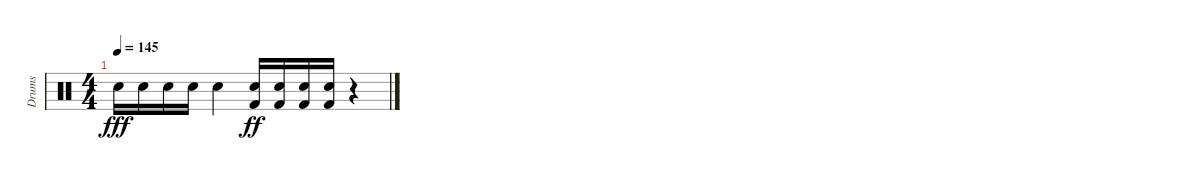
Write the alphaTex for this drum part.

\track ("Drums" "Drums") {instrument percussion}
\staff {score}
\articulation defaults
\ts (4 4)
\tempo 145
\clef neutral
\ks c "Snare (hit) 2".16{dy fff} "Snare (hit) 2".16 "Snare (hit) 2".16 "Snare (hit) 2".16 "Snare (hit) 2".4
("Snare (hit) 2" "Kick (hit) 2").16{dy ff} ("Snare (hit) 2" "Kick (hit) 2").16 ("Snare (hit) 2" "Kick (hit) 2").16 ("Snare (hit) 2" "Kick (hit) 2").16 r.4
